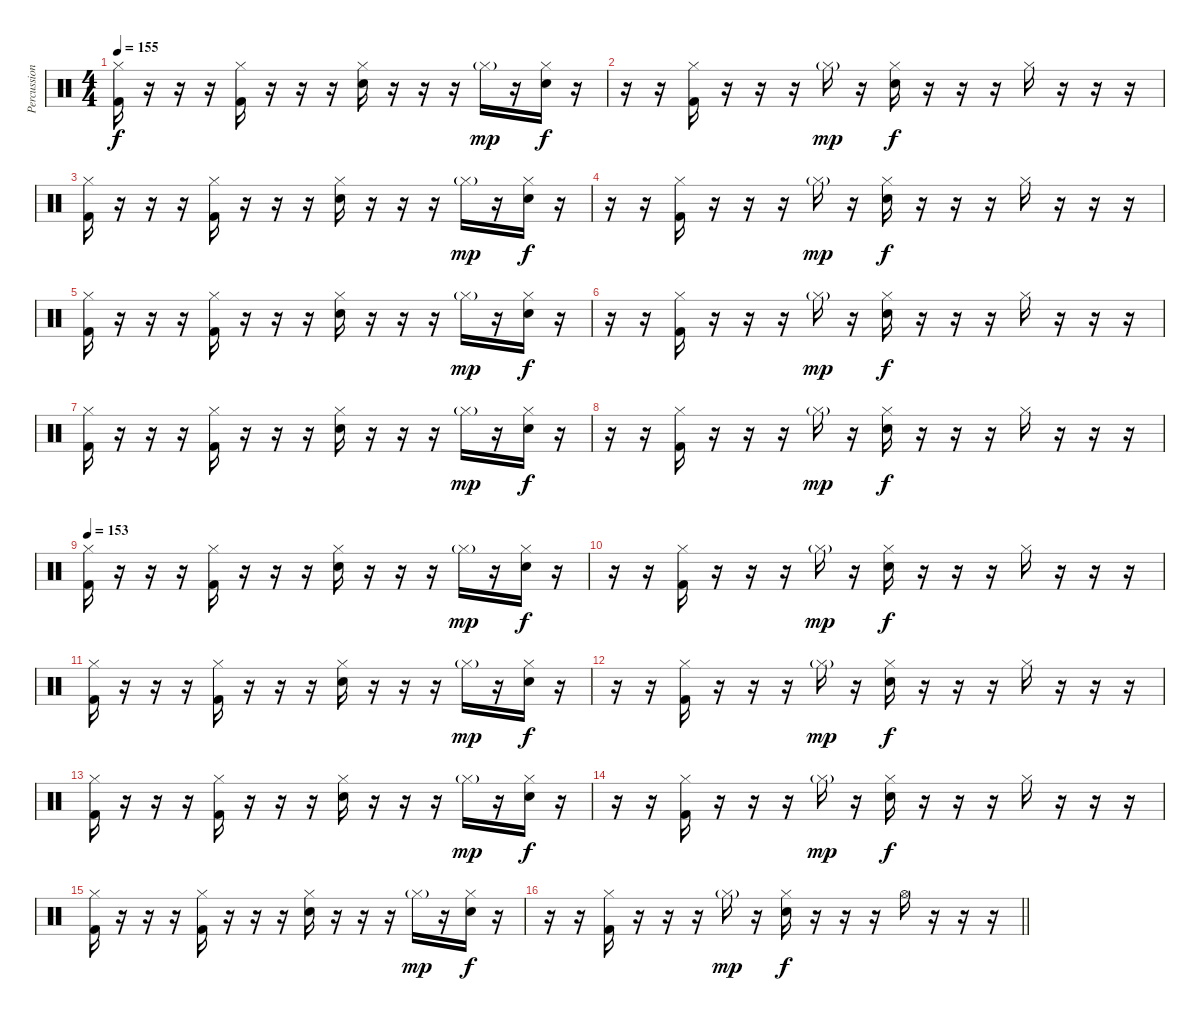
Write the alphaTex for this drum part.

\track ("Percussion" "Percussion") {instrument percussion}
\staff {score}
\articulation defaults
\ts (4 4)
\tempo 155
\clef neutral
\ks c
("Hi-Hat (closed)" "Kick (hit) 2").16{dy f} r.16 r.16 r.16 ("Hi-Hat (closed)" "Kick (hit) 2").16 r.16 r.16 r.16 ("Hi-Hat (closed)" "Electric Snare (hit)").16 r.16 r.16 r.16 "Hi-Hat (closed)"{g}.16{dy mp} r.16 ("Hi-Hat (closed)" "Electric Snare (hit)").16{dy f} r.16 |
r.16 r.16 ("Hi-Hat (closed)" "Kick (hit) 2").16 r.16 r.16 r.16 "Hi-Hat (closed)"{g}.16{dy mp} r.16 ("Hi-Hat (closed)" "Electric Snare (hit)").16{dy f} r.16 r.16 r.16 "Hi-Hat (closed)".16 r.16 r.16 r.16 |
("Hi-Hat (closed)" "Kick (hit) 2").16 r.16 r.16 r.16 ("Hi-Hat (closed)" "Kick (hit) 2").16 r.16 r.16 r.16 ("Hi-Hat (closed)" "Electric Snare (hit)").16 r.16 r.16 r.16 "Hi-Hat (closed)"{g}.16{dy mp} r.16 ("Hi-Hat (closed)" "Electric Snare (hit)").16{dy f} r.16 |
r.16 r.16 ("Hi-Hat (closed)" "Kick (hit) 2").16 r.16 r.16 r.16 "Hi-Hat (closed)"{g}.16{dy mp} r.16 ("Hi-Hat (closed)" "Electric Snare (hit)").16{dy f} r.16 r.16 r.16 "Hi-Hat (closed)".16 r.16 r.16 r.16 |
("Hi-Hat (closed)" "Kick (hit) 2").16 r.16 r.16 r.16 ("Hi-Hat (closed)" "Kick (hit) 2").16 r.16 r.16 r.16 ("Hi-Hat (closed)" "Electric Snare (hit)").16 r.16 r.16 r.16 "Hi-Hat (closed)"{g}.16{dy mp} r.16 ("Hi-Hat (closed)" "Electric Snare (hit)").16{dy f} r.16 |
r.16 r.16 ("Hi-Hat (closed)" "Kick (hit) 2").16 r.16 r.16 r.16 "Hi-Hat (closed)"{g}.16{dy mp} r.16 ("Hi-Hat (closed)" "Electric Snare (hit)").16{dy f} r.16 r.16 r.16 "Hi-Hat (closed)".16 r.16 r.16 r.16 |
("Hi-Hat (closed)" "Kick (hit) 2").16 r.16 r.16 r.16 ("Hi-Hat (closed)" "Kick (hit) 2").16 r.16 r.16 r.16 ("Hi-Hat (closed)" "Electric Snare (hit)").16 r.16 r.16 r.16 "Hi-Hat (closed)"{g}.16{dy mp} r.16 ("Hi-Hat (closed)" "Electric Snare (hit)").16{dy f} r.16 |
r.16 r.16 ("Hi-Hat (closed)" "Kick (hit) 2").16 r.16 r.16 r.16 "Hi-Hat (closed)"{g}.16{dy mp} r.16 ("Hi-Hat (closed)" "Electric Snare (hit)").16{dy f} r.16 r.16 r.16 "Hi-Hat (closed)".16 r.16 r.16 r.16 |
\tempo 153
("Hi-Hat (closed)" "Kick (hit) 2").16 r.16 r.16 r.16 ("Hi-Hat (closed)" "Kick (hit) 2").16 r.16 r.16 r.16 ("Hi-Hat (closed)" "Electric Snare (hit)").16 r.16 r.16 r.16 "Hi-Hat (closed)"{g}.16{dy mp} r.16 ("Hi-Hat (closed)" "Electric Snare (hit)").16{dy f} r.16 |
r.16 r.16 ("Hi-Hat (closed)" "Kick (hit) 2").16 r.16 r.16 r.16 "Hi-Hat (closed)"{g}.16{dy mp} r.16 ("Hi-Hat (closed)" "Electric Snare (hit)").16{dy f} r.16 r.16 r.16 "Hi-Hat (closed)".16 r.16 r.16 r.16 |
("Hi-Hat (closed)" "Kick (hit) 2").16 r.16 r.16 r.16 ("Hi-Hat (closed)" "Kick (hit) 2").16 r.16 r.16 r.16 ("Hi-Hat (closed)" "Electric Snare (hit)").16 r.16 r.16 r.16 "Hi-Hat (closed)"{g}.16{dy mp} r.16 ("Hi-Hat (closed)" "Electric Snare (hit)").16{dy f} r.16 |
r.16 r.16 ("Hi-Hat (closed)" "Kick (hit) 2").16 r.16 r.16 r.16 "Hi-Hat (closed)"{g}.16{dy mp} r.16 ("Hi-Hat (closed)" "Electric Snare (hit)").16{dy f} r.16 r.16 r.16 "Hi-Hat (closed)".16 r.16 r.16 r.16 |
("Hi-Hat (closed)" "Kick (hit) 2").16 r.16 r.16 r.16 ("Hi-Hat (closed)" "Kick (hit) 2").16 r.16 r.16 r.16 ("Hi-Hat (closed)" "Electric Snare (hit)").16 r.16 r.16 r.16 "Hi-Hat (closed)"{g}.16{dy mp} r.16 ("Hi-Hat (closed)" "Electric Snare (hit)").16{dy f} r.16 |
r.16 r.16 ("Hi-Hat (closed)" "Kick (hit) 2").16 r.16 r.16 r.16 "Hi-Hat (closed)"{g}.16{dy mp} r.16 ("Hi-Hat (closed)" "Electric Snare (hit)").16{dy f} r.16 r.16 r.16 "Hi-Hat (closed)".16 r.16 r.16 r.16 |
("Hi-Hat (closed)" "Kick (hit) 2").16 r.16 r.16 r.16 ("Hi-Hat (closed)" "Kick (hit) 2").16 r.16 r.16 r.16 ("Hi-Hat (closed)" "Electric Snare (hit)").16 r.16 r.16 r.16 "Hi-Hat (closed)"{g}.16{dy mp} r.16 ("Hi-Hat (closed)" "Electric Snare (hit)").16{dy f} r.16 |
\barLineRight lightlight
r.16 r.16 ("Hi-Hat (closed)" "Kick (hit) 2").16 r.16 r.16 r.16 "Hi-Hat (closed)"{g}.16{dy mp} r.16 ("Hi-Hat (closed)" "Electric Snare (hit)").16{dy f} r.16 r.16 r.16 "Hi-Hat (open)".16 r.16 r.16 r.16
